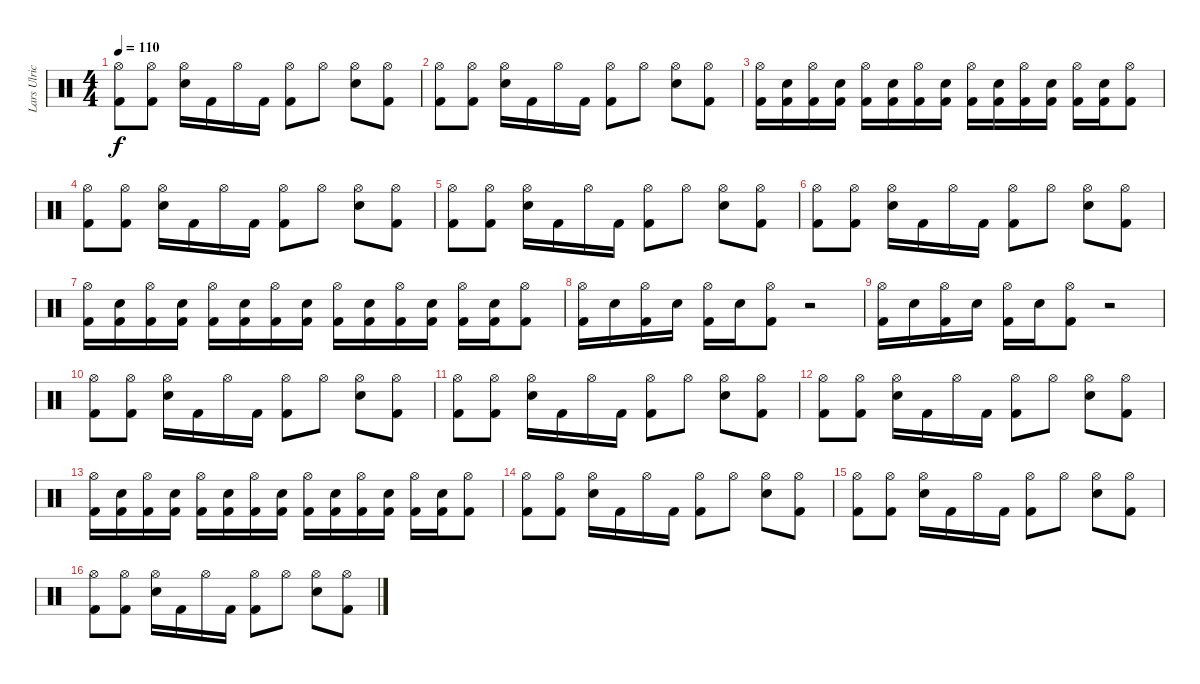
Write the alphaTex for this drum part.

\track ("Lars Ulrich" "Lars Ulric") {instrument percussion}
\staff {score}
\articulation defaults
\ts (4 4)
\tempo 110
\clef neutral
\ks c
("Hi-Hat (open)" "Kick (hit) 2").8{dy f} ("Hi-Hat (open)" "Kick (hit) 2").8 ("Hi-Hat (open)" "Electric Snare (hit)").16 "Kick (hit) 2".16 "Hi-Hat (open)".16 "Kick (hit) 2".16 ("Hi-Hat (open)" "Kick (hit) 2").8 "Hi-Hat (open)".8 ("Hi-Hat (open)" "Electric Snare (hit)").8 ("Hi-Hat (open)" "Kick (hit) 2").8 |
("Hi-Hat (open)" "Kick (hit) 2").8 ("Hi-Hat (open)" "Kick (hit) 2").8 ("Hi-Hat (open)" "Electric Snare (hit)").16 "Kick (hit) 2".16 "Hi-Hat (open)".16 "Kick (hit) 2".16 ("Hi-Hat (open)" "Kick (hit) 2").8 "Hi-Hat (open)".8 ("Hi-Hat (open)" "Electric Snare (hit)").8 ("Hi-Hat (open)" "Kick (hit) 2").8 |
("Hi-Hat (open)" "Kick (hit) 2").16 ("Electric Snare (hit)" "Kick (hit) 2").16 ("Hi-Hat (open)" "Kick (hit) 2").16 ("Electric Snare (hit)" "Kick (hit) 2").16 ("Hi-Hat (open)" "Kick (hit) 2").16 ("Electric Snare (hit)" "Kick (hit) 2").16 ("Hi-Hat (open)" "Kick (hit) 2").16 ("Electric Snare (hit)" "Kick (hit) 2").16 ("Hi-Hat (open)" "Kick (hit) 2").16 ("Electric Snare (hit)" "Kick (hit) 2").16 ("Hi-Hat (open)" "Kick (hit) 2").16 ("Electric Snare (hit)" "Kick (hit) 2").16 ("Hi-Hat (open)" "Kick (hit) 2").16 ("Electric Snare (hit)" "Kick (hit) 2").16 ("Hi-Hat (open)" "Kick (hit) 2").8 |
("Hi-Hat (open)" "Kick (hit) 2").8 ("Hi-Hat (open)" "Kick (hit) 2").8 ("Hi-Hat (open)" "Electric Snare (hit)").16 "Kick (hit) 2".16 "Hi-Hat (open)".16 "Kick (hit) 2".16 ("Hi-Hat (open)" "Kick (hit) 2").8 "Hi-Hat (open)".8 ("Hi-Hat (open)" "Electric Snare (hit)").8 ("Hi-Hat (open)" "Kick (hit) 2").8 |
("Hi-Hat (open)" "Kick (hit) 2").8 ("Hi-Hat (open)" "Kick (hit) 2").8 ("Hi-Hat (open)" "Electric Snare (hit)").16 "Kick (hit) 2".16 "Hi-Hat (open)".16 "Kick (hit) 2".16 ("Hi-Hat (open)" "Kick (hit) 2").8 "Hi-Hat (open)".8 ("Hi-Hat (open)" "Electric Snare (hit)").8 ("Hi-Hat (open)" "Kick (hit) 2").8 |
("Hi-Hat (open)" "Kick (hit) 2").8 ("Hi-Hat (open)" "Kick (hit) 2").8 ("Hi-Hat (open)" "Electric Snare (hit)").16 "Kick (hit) 2".16 "Hi-Hat (open)".16 "Kick (hit) 2".16 ("Hi-Hat (open)" "Kick (hit) 2").8 "Hi-Hat (open)".8 ("Hi-Hat (open)" "Electric Snare (hit)").8 ("Hi-Hat (open)" "Kick (hit) 2").8 |
("Hi-Hat (open)" "Kick (hit) 2").16 ("Electric Snare (hit)" "Kick (hit) 2").16 ("Hi-Hat (open)" "Kick (hit) 2").16 ("Electric Snare (hit)" "Kick (hit) 2").16 ("Hi-Hat (open)" "Kick (hit) 2").16 ("Electric Snare (hit)" "Kick (hit) 2").16 ("Hi-Hat (open)" "Kick (hit) 2").16 ("Electric Snare (hit)" "Kick (hit) 2").16 ("Hi-Hat (open)" "Kick (hit) 2").16 ("Electric Snare (hit)" "Kick (hit) 2").16 ("Hi-Hat (open)" "Kick (hit) 2").16 ("Electric Snare (hit)" "Kick (hit) 2").16 ("Hi-Hat (open)" "Kick (hit) 2").16 ("Electric Snare (hit)" "Kick (hit) 2").16 ("Hi-Hat (open)" "Kick (hit) 2").8 |
("Hi-Hat (open)" "Kick (hit) 2").16 "Electric Snare (hit)".16 ("Hi-Hat (open)" "Kick (hit) 2").16 "Electric Snare (hit)".16 ("Hi-Hat (open)" "Kick (hit) 2").16 "Electric Snare (hit)".16 ("Hi-Hat (open)" "Kick (hit) 2").8 r.2 |
("Hi-Hat (open)" "Kick (hit) 2").16 "Electric Snare (hit)".16 ("Hi-Hat (open)" "Kick (hit) 2").16 "Electric Snare (hit)".16 ("Hi-Hat (open)" "Kick (hit) 2").16 "Electric Snare (hit)".16 ("Hi-Hat (open)" "Kick (hit) 2").8 r.2 |
("Hi-Hat (open)" "Kick (hit) 2").8 ("Hi-Hat (open)" "Kick (hit) 2").8 ("Hi-Hat (open)" "Electric Snare (hit)").16 "Kick (hit) 2".16 "Hi-Hat (open)".16 "Kick (hit) 2".16 ("Hi-Hat (open)" "Kick (hit) 2").8 "Hi-Hat (open)".8 ("Hi-Hat (open)" "Electric Snare (hit)").8 ("Hi-Hat (open)" "Kick (hit) 2").8 |
("Hi-Hat (open)" "Kick (hit) 2").8 ("Hi-Hat (open)" "Kick (hit) 2").8 ("Hi-Hat (open)" "Electric Snare (hit)").16 "Kick (hit) 2".16 "Hi-Hat (open)".16 "Kick (hit) 2".16 ("Hi-Hat (open)" "Kick (hit) 2").8 "Hi-Hat (open)".8 ("Hi-Hat (open)" "Electric Snare (hit)").8 ("Hi-Hat (open)" "Kick (hit) 2").8 |
("Hi-Hat (open)" "Kick (hit) 2").8 ("Hi-Hat (open)" "Kick (hit) 2").8 ("Hi-Hat (open)" "Electric Snare (hit)").16 "Kick (hit) 2".16 "Hi-Hat (open)".16 "Kick (hit) 2".16 ("Hi-Hat (open)" "Kick (hit) 2").8 "Hi-Hat (open)".8 ("Hi-Hat (open)" "Electric Snare (hit)").8 ("Hi-Hat (open)" "Kick (hit) 2").8 |
("Hi-Hat (open)" "Kick (hit) 2").16 ("Electric Snare (hit)" "Kick (hit) 2").16 ("Hi-Hat (open)" "Kick (hit) 2").16 ("Electric Snare (hit)" "Kick (hit) 2").16 ("Hi-Hat (open)" "Kick (hit) 2").16 ("Electric Snare (hit)" "Kick (hit) 2").16 ("Hi-Hat (open)" "Kick (hit) 2").16 ("Electric Snare (hit)" "Kick (hit) 2").16 ("Hi-Hat (open)" "Kick (hit) 2").16 ("Electric Snare (hit)" "Kick (hit) 2").16 ("Hi-Hat (open)" "Kick (hit) 2").16 ("Electric Snare (hit)" "Kick (hit) 2").16 ("Hi-Hat (open)" "Kick (hit) 2").16 ("Electric Snare (hit)" "Kick (hit) 2").16 ("Hi-Hat (open)" "Kick (hit) 2").8 |
("Hi-Hat (open)" "Kick (hit) 2").8 ("Hi-Hat (open)" "Kick (hit) 2").8 ("Hi-Hat (open)" "Electric Snare (hit)").16 "Kick (hit) 2".16 "Hi-Hat (open)".16 "Kick (hit) 2".16 ("Hi-Hat (open)" "Kick (hit) 2").8 "Hi-Hat (open)".8 ("Hi-Hat (open)" "Electric Snare (hit)").8 ("Hi-Hat (open)" "Kick (hit) 2").8 |
("Hi-Hat (open)" "Kick (hit) 2").8 ("Hi-Hat (open)" "Kick (hit) 2").8 ("Hi-Hat (open)" "Electric Snare (hit)").16 "Kick (hit) 2".16 "Hi-Hat (open)".16 "Kick (hit) 2".16 ("Hi-Hat (open)" "Kick (hit) 2").8 "Hi-Hat (open)".8 ("Hi-Hat (open)" "Electric Snare (hit)").8 ("Hi-Hat (open)" "Kick (hit) 2").8 |
("Hi-Hat (open)" "Kick (hit) 2").8 ("Hi-Hat (open)" "Kick (hit) 2").8 ("Hi-Hat (open)" "Electric Snare (hit)").16 "Kick (hit) 2".16 "Hi-Hat (open)".16 "Kick (hit) 2".16 ("Hi-Hat (open)" "Kick (hit) 2").8 "Hi-Hat (open)".8 ("Hi-Hat (open)" "Electric Snare (hit)").8 ("Hi-Hat (open)" "Kick (hit) 2").8
